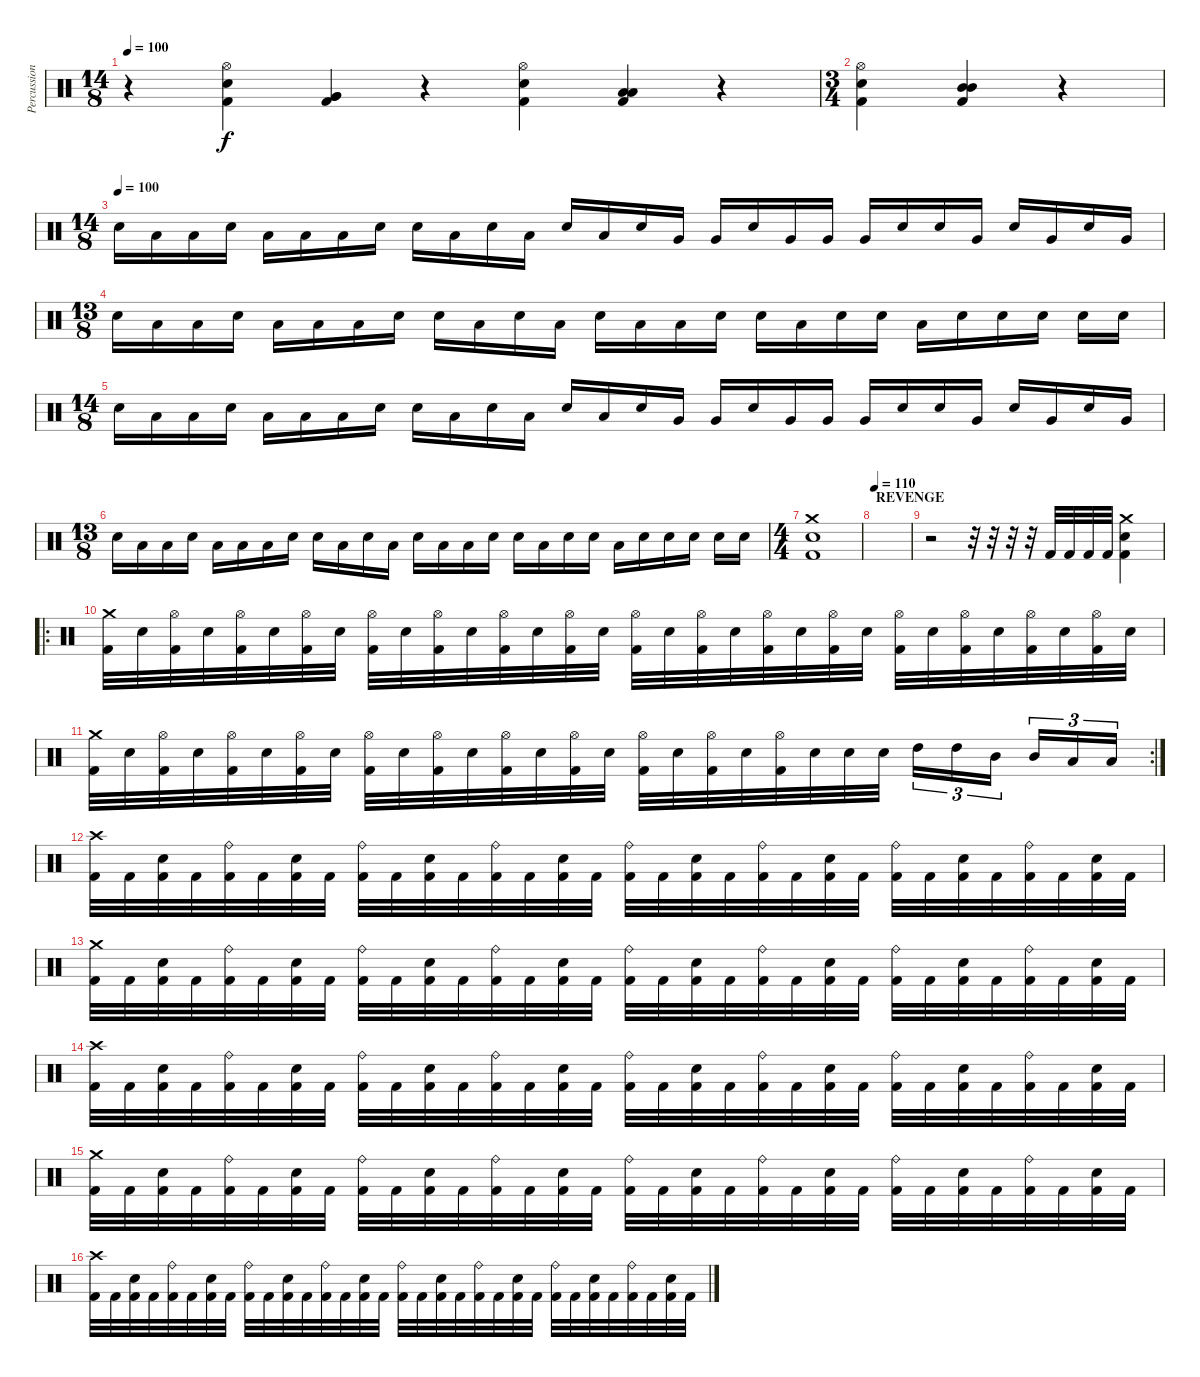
\track ("Percussion" "Percussion") {instrument percussion}
\staff {score}
\articulation defaults
\ts (14 8)
\tempo 100
\clef neutral
\ks c
r.4{dy f} ("Hi-Hat (open)" "Electric Snare (hit)" "Kick (hit) 2").4 ("Very Low Tom (hit)" "Very Low Tom (hit)" "Kick (hit) 2").4 r.4 ("Hi-Hat (open)" "Electric Snare (hit)" "Kick (hit) 2").4 ("Low Tom (hit)" "Low Tom (hit)" "Kick (hit) 2").4 r.4 |
\ts (3 4)
("Hi-Hat (open)" "Electric Snare (hit)" "Kick (hit) 2").4 ("Mid Tom (hit)" "Mid Tom (hit)" "Kick (hit) 2").4 r.4 |
\ts (14 8)
\tempo (100)
"Electric Snare (hit)".16{volume 16} "Low Tom (hit)".16 "Low Tom (hit)".16 "Electric Snare (hit)".16 "Low Tom (hit)".16 "Low Tom (hit)".16 "Low Tom (hit)".16 "Electric Snare (hit)".16 "Electric Snare (hit)".16 "Low Tom (hit)".16 "Electric Snare (hit)".16 "Low Tom (hit)".16 "Electric Snare (hit)".16 "Low Tom (hit)".16 "Electric Snare (hit)".16 "Very Low Tom (hit)".16 "Very Low Tom (hit)".16 "Electric Snare (hit)".16 "Very Low Tom (hit)".16 "Very Low Tom (hit)".16 "Very Low Tom (hit)".16 "Electric Snare (hit)".16 "Electric Snare (hit)".16 "Very Low Tom (hit)".16 "Electric Snare (hit)".16 "Very Low Tom (hit)".16 "Electric Snare (hit)".16 "Very Low Tom (hit)".16 |
\ts (13 8)
"Electric Snare (hit)".16 "Low Tom (hit)".16 "Low Tom (hit)".16 "Electric Snare (hit)".16 "Low Tom (hit)".16 "Low Tom (hit)".16 "Low Tom (hit)".16 "Electric Snare (hit)".16 "Electric Snare (hit)".16 "Low Tom (hit)".16 "Electric Snare (hit)".16 "Low Tom (hit)".16 "Electric Snare (hit)".16 "Low Tom (hit)".16 "Low Tom (hit)".16 "Electric Snare (hit)".16 "Electric Snare (hit)".16 "Low Tom (hit)".16 "Electric Snare (hit)".16 "Electric Snare (hit)".16 "Low Tom (hit)".16 "Electric Snare (hit)".16 "Electric Snare (hit)".16 "Electric Snare (hit)".16 "Electric Snare (hit)".16 "Electric Snare (hit)".16 |
\ts (14 8)
"Electric Snare (hit)".16 "Low Tom (hit)".16 "Low Tom (hit)".16 "Electric Snare (hit)".16 "Low Tom (hit)".16 "Low Tom (hit)".16 "Low Tom (hit)".16 "Electric Snare (hit)".16 "Electric Snare (hit)".16 "Low Tom (hit)".16 "Electric Snare (hit)".16 "Low Tom (hit)".16 "Electric Snare (hit)".16 "Low Tom (hit)".16 "Electric Snare (hit)".16 "Very Low Tom (hit)".16 "Very Low Tom (hit)".16 "Electric Snare (hit)".16 "Very Low Tom (hit)".16 "Very Low Tom (hit)".16 "Very Low Tom (hit)".16 "Electric Snare (hit)".16 "Electric Snare (hit)".16 "Very Low Tom (hit)".16 "Electric Snare (hit)".16 "Very Low Tom (hit)".16 "Electric Snare (hit)".16 "Very Low Tom (hit)".16 |
\ts (13 8)
"Electric Snare (hit)".16 "Low Tom (hit)".16 "Low Tom (hit)".16 "Electric Snare (hit)".16 "Low Tom (hit)".16 "Low Tom (hit)".16 "Low Tom (hit)".16 "Electric Snare (hit)".16 "Electric Snare (hit)".16 "Low Tom (hit)".16 "Electric Snare (hit)".16 "Low Tom (hit)".16 "Electric Snare (hit)".16 "Low Tom (hit)".16 "Low Tom (hit)".16 "Electric Snare (hit)".16 "Electric Snare (hit)".16 "Low Tom (hit)".16 "Electric Snare (hit)".16 "Electric Snare (hit)".16 "Low Tom (hit)".16 "Electric Snare (hit)".16 "Electric Snare (hit)".16 "Electric Snare (hit)".16 "Electric Snare (hit)".16 "Electric Snare (hit)".16 |
\ts (4 4)
("Crash medium (hit)" "Electric Snare (hit)" "Kick (hit) 2").1 |
\section ("" "REVENGE")
\tempo 110
|
r.2 r.32 r.32 r.32 r.32 "Kick (hit) 2".32 "Kick (hit) 2".32 "Kick (hit) 2".32 "Kick (hit) 2".32 ("Crash medium (hit)" "Electric Snare (hit)" "Kick (hit) 2").4 |
\ro
("Crash medium (hit)" "Kick (hit) 2").32 "Electric Snare (hit)".32 ("Hi-Hat (open)" "Kick (hit) 2").32 "Electric Snare (hit)".32 ("Hi-Hat (open)" "Kick (hit) 2").32 "Electric Snare (hit)".32 ("Hi-Hat (open)" "Kick (hit) 2").32 "Electric Snare (hit)".32 ("Hi-Hat (open)" "Kick (hit) 2").32 "Electric Snare (hit)".32 ("Hi-Hat (open)" "Kick (hit) 2").32 "Electric Snare (hit)".32 ("Hi-Hat (open)" "Kick (hit) 2").32 "Electric Snare (hit)".32 ("Hi-Hat (open)" "Kick (hit) 2").32 "Electric Snare (hit)".32 ("Hi-Hat (open)" "Kick (hit) 2").32 "Electric Snare (hit)".32 ("Hi-Hat (open)" "Kick (hit) 2").32 "Electric Snare (hit)".32 ("Hi-Hat (open)" "Kick (hit) 2").32 "Electric Snare (hit)".32 ("Hi-Hat (open)" "Kick (hit) 2").32 "Electric Snare (hit)".32 ("Hi-Hat (open)" "Kick (hit) 2").32 "Electric Snare (hit)".32 ("Hi-Hat (open)" "Kick (hit) 2").32 "Electric Snare (hit)".32 ("Hi-Hat (open)" "Kick (hit) 2").32 "Electric Snare (hit)".32 ("Hi-Hat (open)" "Kick (hit) 2").32 "Electric Snare (hit)".32 |
\rc 2
("Crash medium (hit)" "Kick (hit) 2").32 "Electric Snare (hit)".32 ("Hi-Hat (open)" "Kick (hit) 2").32 "Electric Snare (hit)".32 ("Hi-Hat (open)" "Kick (hit) 2").32 "Electric Snare (hit)".32 ("Hi-Hat (open)" "Kick (hit) 2").32 "Electric Snare (hit)".32 ("Hi-Hat (open)" "Kick (hit) 2").32 "Electric Snare (hit)".32 ("Hi-Hat (open)" "Kick (hit) 2").32 "Electric Snare (hit)".32 ("Hi-Hat (open)" "Kick (hit) 2").32 "Electric Snare (hit)".32 ("Hi-Hat (open)" "Kick (hit) 2").32 "Electric Snare (hit)".32 ("Hi-Hat (open)" "Kick (hit) 2").32 "Electric Snare (hit)".32 ("Hi-Hat (open)" "Kick (hit) 2").32 "Electric Snare (hit)".32 ("Hi-Hat (open)" "Kick (hit) 2").32 "Electric Snare (hit)".32 "Electric Snare (hit)".32 "Electric Snare (hit)".32 "High Tom (hit)".16{tu (3 2)} "High Tom (hit)".16{tu (3 2)} "Mid Tom (hit)".16{tu (3 2)} "Mid Tom (hit)".16{tu (3 2)} "Low Tom (hit)".16{tu (3 2)} "Low Tom (hit)".16{tu (3 2)} |
("Crash high (hit)" "Kick (hit) 2").32 "Kick (hit) 2".32 ("Electric Snare (hit)" "Kick (hit) 2").32 "Kick (hit) 2".32 ("Ride (bell)" "Kick (hit) 2").32 "Kick (hit) 2".32 ("Electric Snare (hit)" "Kick (hit) 2").32 "Kick (hit) 2".32 ("Ride (bell)" "Kick (hit) 2").32 "Kick (hit) 2".32 ("Electric Snare (hit)" "Kick (hit) 2").32 "Kick (hit) 2".32 ("Ride (bell)" "Kick (hit) 2").32 "Kick (hit) 2".32 ("Electric Snare (hit)" "Kick (hit) 2").32 "Kick (hit) 2".32 ("Ride (bell)" "Kick (hit) 2").32 "Kick (hit) 2".32 ("Electric Snare (hit)" "Kick (hit) 2").32 "Kick (hit) 2".32 ("Ride (bell)" "Kick (hit) 2").32 "Kick (hit) 2".32 ("Electric Snare (hit)" "Kick (hit) 2").32 "Kick (hit) 2".32 ("Ride (bell)" "Kick (hit) 2").32 "Kick (hit) 2".32 ("Electric Snare (hit)" "Kick (hit) 2").32 "Kick (hit) 2".32 ("Ride (bell)" "Kick (hit) 2").32 "Kick (hit) 2".32 ("Electric Snare (hit)" "Kick (hit) 2").32 "Kick (hit) 2".32 |
("Crash medium (hit)" "Kick (hit) 2").32 "Kick (hit) 2".32 ("Electric Snare (hit)" "Kick (hit) 2").32 "Kick (hit) 2".32 ("Ride (bell)" "Kick (hit) 2").32 "Kick (hit) 2".32 ("Electric Snare (hit)" "Kick (hit) 2").32 "Kick (hit) 2".32 ("Ride (bell)" "Kick (hit) 2").32 "Kick (hit) 2".32 ("Electric Snare (hit)" "Kick (hit) 2").32 "Kick (hit) 2".32 ("Ride (bell)" "Kick (hit) 2").32 "Kick (hit) 2".32 ("Electric Snare (hit)" "Kick (hit) 2").32 "Kick (hit) 2".32 ("Ride (bell)" "Kick (hit) 2").32 "Kick (hit) 2".32 ("Electric Snare (hit)" "Kick (hit) 2").32 "Kick (hit) 2".32 ("Ride (bell)" "Kick (hit) 2").32 "Kick (hit) 2".32 ("Electric Snare (hit)" "Kick (hit) 2").32 "Kick (hit) 2".32 ("Ride (bell)" "Kick (hit) 2").32 "Kick (hit) 2".32 ("Electric Snare (hit)" "Kick (hit) 2").32 "Kick (hit) 2".32 ("Ride (bell)" "Kick (hit) 2").32 "Kick (hit) 2".32 ("Electric Snare (hit)" "Kick (hit) 2").32 "Kick (hit) 2".32 |
("Crash high (hit)" "Kick (hit) 2").32 "Kick (hit) 2".32 ("Electric Snare (hit)" "Kick (hit) 2").32 "Kick (hit) 2".32 ("Ride (bell)" "Kick (hit) 2").32 "Kick (hit) 2".32 ("Electric Snare (hit)" "Kick (hit) 2").32 "Kick (hit) 2".32 ("Ride (bell)" "Kick (hit) 2").32 "Kick (hit) 2".32 ("Electric Snare (hit)" "Kick (hit) 2").32 "Kick (hit) 2".32 ("Ride (bell)" "Kick (hit) 2").32 "Kick (hit) 2".32 ("Electric Snare (hit)" "Kick (hit) 2").32 "Kick (hit) 2".32 ("Ride (bell)" "Kick (hit) 2").32 "Kick (hit) 2".32 ("Electric Snare (hit)" "Kick (hit) 2").32 "Kick (hit) 2".32 ("Ride (bell)" "Kick (hit) 2").32 "Kick (hit) 2".32 ("Electric Snare (hit)" "Kick (hit) 2").32 "Kick (hit) 2".32 ("Ride (bell)" "Kick (hit) 2").32 "Kick (hit) 2".32 ("Electric Snare (hit)" "Kick (hit) 2").32 "Kick (hit) 2".32 ("Ride (bell)" "Kick (hit) 2").32 "Kick (hit) 2".32 ("Electric Snare (hit)" "Kick (hit) 2").32 "Kick (hit) 2".32 |
("Crash medium (hit)" "Kick (hit) 2").32 "Kick (hit) 2".32 ("Electric Snare (hit)" "Kick (hit) 2").32 "Kick (hit) 2".32 ("Ride (bell)" "Kick (hit) 2").32 "Kick (hit) 2".32 ("Electric Snare (hit)" "Kick (hit) 2").32 "Kick (hit) 2".32 ("Ride (bell)" "Kick (hit) 2").32 "Kick (hit) 2".32 ("Electric Snare (hit)" "Kick (hit) 2").32 "Kick (hit) 2".32 ("Ride (bell)" "Kick (hit) 2").32 "Kick (hit) 2".32 ("Electric Snare (hit)" "Kick (hit) 2").32 "Kick (hit) 2".32 ("Ride (bell)" "Kick (hit) 2").32 "Kick (hit) 2".32 ("Electric Snare (hit)" "Kick (hit) 2").32 "Kick (hit) 2".32 ("Ride (bell)" "Kick (hit) 2").32 "Kick (hit) 2".32 ("Electric Snare (hit)" "Kick (hit) 2").32 "Kick (hit) 2".32 ("Ride (bell)" "Kick (hit) 2").32 "Kick (hit) 2".32 ("Electric Snare (hit)" "Kick (hit) 2").32 "Kick (hit) 2".32 ("Ride (bell)" "Kick (hit) 2").32 "Kick (hit) 2".32 ("Electric Snare (hit)" "Kick (hit) 2").32 "Kick (hit) 2".32 |
("Crash high (hit)" "Kick (hit) 2").32 "Kick (hit) 2".32 ("Electric Snare (hit)" "Kick (hit) 2").32 "Kick (hit) 2".32 ("Ride (bell)" "Kick (hit) 2").32 "Kick (hit) 2".32 ("Electric Snare (hit)" "Kick (hit) 2").32 "Kick (hit) 2".32 ("Ride (bell)" "Kick (hit) 2").32 "Kick (hit) 2".32 ("Electric Snare (hit)" "Kick (hit) 2").32 "Kick (hit) 2".32 ("Ride (bell)" "Kick (hit) 2").32 "Kick (hit) 2".32 ("Electric Snare (hit)" "Kick (hit) 2").32 "Kick (hit) 2".32 ("Ride (bell)" "Kick (hit) 2").32 "Kick (hit) 2".32 ("Electric Snare (hit)" "Kick (hit) 2").32 "Kick (hit) 2".32 ("Ride (bell)" "Kick (hit) 2").32 "Kick (hit) 2".32 ("Electric Snare (hit)" "Kick (hit) 2").32 "Kick (hit) 2".32 ("Ride (bell)" "Kick (hit) 2").32 "Kick (hit) 2".32 ("Electric Snare (hit)" "Kick (hit) 2").32 "Kick (hit) 2".32 ("Ride (bell)" "Kick (hit) 2").32 "Kick (hit) 2".32 ("Electric Snare (hit)" "Kick (hit) 2").32 "Kick (hit) 2".32
